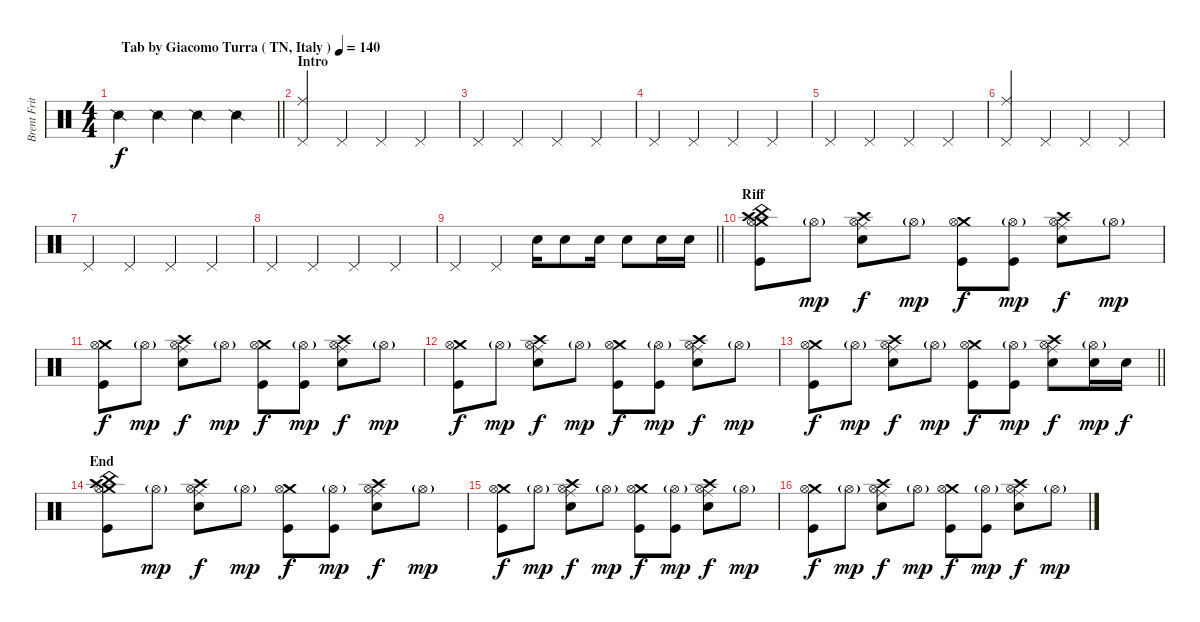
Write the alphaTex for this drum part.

\track ("Brent Fritz" "Brent Frit") {instrument percussion}
\staff {score}
\articulation defaults
\ts (4 4)
\tempo (140 "Tab by Giacomo Turra ( TN, Italy )")
\clef neutral
\barLineRight lightlight
\ks c "Snare (side stick) 2".4{dy f} "Snare (side stick) 2".4 "Snare (side stick) 2".4 "Snare (side stick) 2".4
|
\section ("" "Intro")
("Ride (middle)" "Pedal Hi-Hat (hit)").4 "Pedal Hi-Hat (hit)".4 "Pedal Hi-Hat (hit)".4 "Pedal Hi-Hat (hit)".4 |
"Pedal Hi-Hat (hit)".4 "Pedal Hi-Hat (hit)".4 "Pedal Hi-Hat (hit)".4 "Pedal Hi-Hat (hit)".4 |
"Pedal Hi-Hat (hit)".4 "Pedal Hi-Hat (hit)".4 "Pedal Hi-Hat (hit)".4 "Pedal Hi-Hat (hit)".4 |
"Pedal Hi-Hat (hit)".4 "Pedal Hi-Hat (hit)".4 "Pedal Hi-Hat (hit)".4 "Pedal Hi-Hat (hit)".4 |
("Ride (middle)" "Pedal Hi-Hat (hit)").4 "Pedal Hi-Hat (hit)".4 "Pedal Hi-Hat (hit)".4 "Pedal Hi-Hat (hit)".4 |
"Pedal Hi-Hat (hit)".4 "Pedal Hi-Hat (hit)".4 "Pedal Hi-Hat (hit)".4 "Pedal Hi-Hat (hit)".4 |
"Pedal Hi-Hat (hit)".4 "Pedal Hi-Hat (hit)".4 "Pedal Hi-Hat (hit)".4 "Pedal Hi-Hat (hit)".4 |
\barLineRight lightlight "Pedal Hi-Hat (hit)".4 "Pedal Hi-Hat (hit)".4 "Electric Snare (hit)".16 "Electric Snare (hit)".8 "Electric Snare (hit)".16 "Electric Snare (hit)".8 "Electric Snare (hit)".16 "Electric Snare (hit)".16
|
\section ("" "Riff")
("Crash high (hit)" "Crash medium (hit)" "Hi-Hat (open)" "China (hit)" "Kick (hit)").8 "Hi-Hat (open)"{g}.8{dy mp} ("Crash high (hit)" "Ride (middle)" "Hi-Hat (open)" "Electric Snare (hit)").8{dy f} "Hi-Hat (open)"{g}.8{dy mp} ("Crash medium (hit)" "Hi-Hat (open)" "Kick (hit)").8{dy f} ("Hi-Hat (open)"{g} "Kick (hit)").8{dy mp} ("Crash high (hit)" "Ride (middle)" "Hi-Hat (open)" "Electric Snare (hit)").8{dy f} "Hi-Hat (open)"{g}.8{dy mp} |
("Crash medium (hit)" "Hi-Hat (open)" "Kick (hit)").8{dy f} "Hi-Hat (open)"{g}.8{dy mp} ("Crash high (hit)" "Ride (middle)" "Hi-Hat (open)" "Electric Snare (hit)").8{dy f} "Hi-Hat (open)"{g}.8{dy mp} ("Crash medium (hit)" "Hi-Hat (open)" "Kick (hit)").8{dy f} ("Hi-Hat (open)"{g} "Kick (hit)").8{dy mp} ("Crash high (hit)" "Ride (middle)" "Hi-Hat (open)" "Electric Snare (hit)").8{dy f} "Hi-Hat (open)"{g}.8{dy mp} |
("Crash medium (hit)" "Hi-Hat (open)" "Kick (hit)").8{dy f} "Hi-Hat (open)"{g}.8{dy mp} ("Crash high (hit)" "Ride (middle)" "Hi-Hat (open)" "Electric Snare (hit)").8{dy f} "Hi-Hat (open)"{g}.8{dy mp} ("Crash medium (hit)" "Hi-Hat (open)" "Kick (hit)").8{dy f} ("Hi-Hat (open)"{g} "Kick (hit)").8{dy mp} ("Crash high (hit)" "Ride (middle)" "Hi-Hat (open)" "Electric Snare (hit)").8{dy f} "Hi-Hat (open)"{g}.8{dy mp} |
\barLineRight lightlight
("Crash medium (hit)" "Hi-Hat (open)" "Kick (hit)").8{dy f} "Hi-Hat (open)"{g}.8{dy mp} ("Crash high (hit)" "Ride (middle)" "Hi-Hat (open)" "Electric Snare (hit)").8{dy f} "Hi-Hat (open)"{g}.8{dy mp} ("Crash medium (hit)" "Hi-Hat (open)" "Kick (hit)").8{dy f} ("Hi-Hat (open)"{g} "Kick (hit)").8{dy mp} ("Crash high (hit)" "Ride (middle)" "Hi-Hat (open)" "Electric Snare (hit)").8{dy f} ("Hi-Hat (open)"{g} "Electric Snare (hit)").16{dy mp} "Electric Snare (hit)".16{dy f} |
\section ("" "End")
("Crash high (hit)" "Crash medium (hit)" "Hi-Hat (open)" "China (hit)" "Kick (hit)").8 "Hi-Hat (open)"{g}.8{dy mp} ("Crash high (hit)" "Ride (middle)" "Hi-Hat (open)" "Electric Snare (hit)").8{dy f} "Hi-Hat (open)"{g}.8{dy mp} ("Crash medium (hit)" "Hi-Hat (open)" "Kick (hit)").8{dy f} ("Hi-Hat (open)"{g} "Kick (hit)").8{dy mp} ("Crash high (hit)" "Ride (middle)" "Hi-Hat (open)" "Electric Snare (hit)").8{dy f} "Hi-Hat (open)"{g}.8{dy mp} |
("Crash medium (hit)" "Hi-Hat (open)" "Kick (hit)").8{dy f} "Hi-Hat (open)"{g}.8{dy mp} ("Crash high (hit)" "Ride (middle)" "Hi-Hat (open)" "Electric Snare (hit)").8{dy f} "Hi-Hat (open)"{g}.8{dy mp} ("Crash medium (hit)" "Hi-Hat (open)" "Kick (hit)").8{dy f} ("Hi-Hat (open)"{g} "Kick (hit)").8{dy mp} ("Crash high (hit)" "Ride (middle)" "Hi-Hat (open)" "Electric Snare (hit)").8{dy f} "Hi-Hat (open)"{g}.8{dy mp} |
("Crash medium (hit)" "Hi-Hat (open)" "Kick (hit)").8{dy f} "Hi-Hat (open)"{g}.8{dy mp} ("Crash high (hit)" "Ride (middle)" "Hi-Hat (open)" "Electric Snare (hit)").8{dy f} "Hi-Hat (open)"{g}.8{dy mp} ("Crash medium (hit)" "Hi-Hat (open)" "Kick (hit)").8{dy f} ("Hi-Hat (open)"{g} "Kick (hit)").8{dy mp} ("Crash high (hit)" "Ride (middle)" "Hi-Hat (open)" "Electric Snare (hit)").8{dy f} "Hi-Hat (open)"{g}.8{dy mp}
